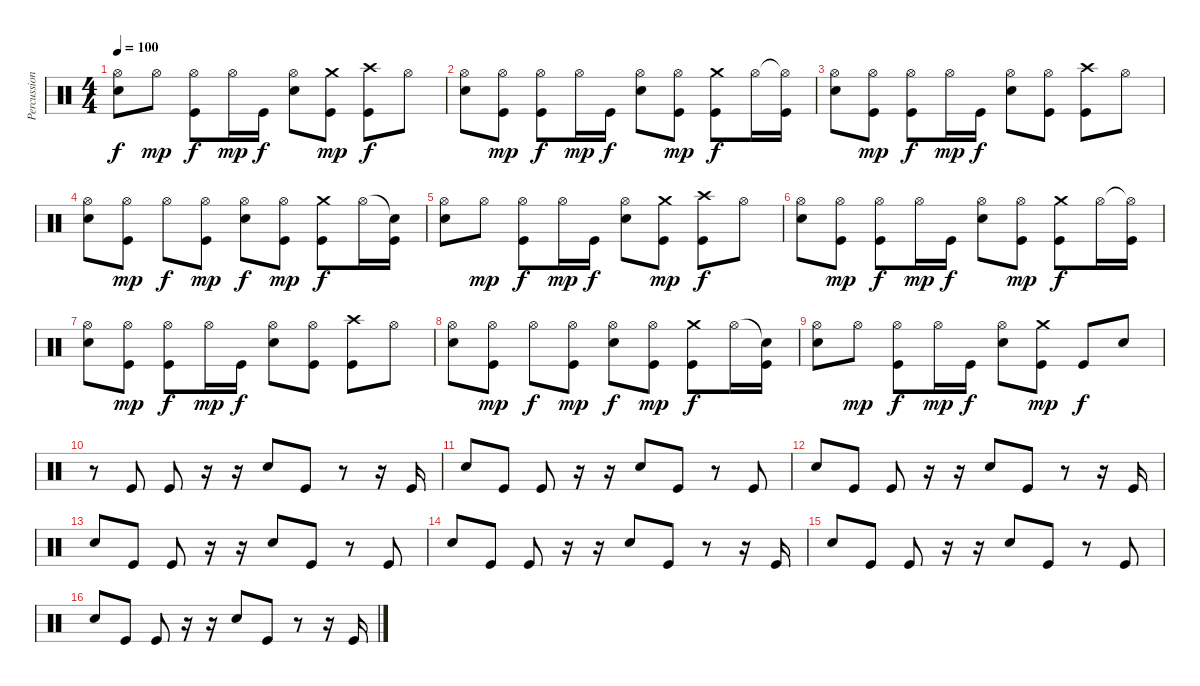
\track ("Percussion" "Percussion") {instrument percussion}
\staff {score}
\articulation defaults
\ts (4 4)
\tempo 100
\clef neutral
\ks c
("Hi-Hat (open)" "Electric Snare (hit)").8{dy f} "Hi-Hat (open)".8{dy mp} ("Hi-Hat (open)" "Kick (hit)").8{dy f} "Hi-Hat (open)".16{dy mp} "Kick (hit)".16{dy f} ("Hi-Hat (open)" "Electric Snare (hit)").8 ("Crash medium (hit)" "Kick (hit)").8{dy mp} ("Crash high (hit)" "Kick (hit)").8{dy f} "Hi-Hat (open)".8 |
("Hi-Hat (open)" "Electric Snare (hit)").8 ("Hi-Hat (open)" "Kick (hit)").8{dy mp} ("Hi-Hat (open)" "Kick (hit)").8{dy f} "Hi-Hat (open)".16{dy mp} "Kick (hit)".16{dy f} ("Hi-Hat (open)" "Electric Snare (hit)").8 ("Hi-Hat (open)" "Kick (hit)").8{dy mp} ("Crash medium (hit)" "Kick (hit)").8{dy f} "Hi-Hat (open)".16 ("Hi-Hat (open)"{t} "Kick (hit)").16 |
("Hi-Hat (open)" "Electric Snare (hit)").8 ("Hi-Hat (open)" "Kick (hit)").8{dy mp} ("Hi-Hat (open)" "Kick (hit)").8{dy f} "Hi-Hat (open)".16{dy mp} "Kick (hit)".16{dy f} ("Hi-Hat (open)" "Electric Snare (hit)").8 ("Hi-Hat (open)" "Kick (hit)").8 ("Crash high (hit)" "Kick (hit)").8 "Hi-Hat (open)".8 |
("Hi-Hat (open)" "Electric Snare (hit)").8 ("Hi-Hat (open)" "Kick (hit)").8{dy mp} "Hi-Hat (open)".8{dy f} ("Hi-Hat (open)" "Kick (hit)").8{dy mp} ("Hi-Hat (open)" "Electric Snare (hit)").8{dy f} ("Hi-Hat (open)" "Kick (hit)").8{dy mp} ("Crash medium (hit)" "Kick (hit)").8{dy f} "Hi-Hat (open)".16 ("Snare (hit)"{t} "Kick (hit)").16 |
("Hi-Hat (open)" "Electric Snare (hit)").8 "Hi-Hat (open)".8{dy mp} ("Hi-Hat (open)" "Kick (hit)").8{dy f} "Hi-Hat (open)".16{dy mp} "Kick (hit)".16{dy f} ("Hi-Hat (open)" "Electric Snare (hit)").8 ("Crash medium (hit)" "Kick (hit)").8{dy mp} ("Crash high (hit)" "Kick (hit)").8{dy f} "Hi-Hat (open)".8 |
("Hi-Hat (open)" "Electric Snare (hit)").8 ("Hi-Hat (open)" "Kick (hit)").8{dy mp} ("Hi-Hat (open)" "Kick (hit)").8{dy f} "Hi-Hat (open)".16{dy mp} "Kick (hit)".16{dy f} ("Hi-Hat (open)" "Electric Snare (hit)").8 ("Hi-Hat (open)" "Kick (hit)").8{dy mp} ("Crash medium (hit)" "Kick (hit)").8{dy f} "Hi-Hat (open)".16 ("Hi-Hat (open)"{t} "Kick (hit)").16 |
("Hi-Hat (open)" "Electric Snare (hit)").8 ("Hi-Hat (open)" "Kick (hit)").8{dy mp} ("Hi-Hat (open)" "Kick (hit)").8{dy f} "Hi-Hat (open)".16{dy mp} "Kick (hit)".16{dy f} ("Hi-Hat (open)" "Electric Snare (hit)").8 ("Hi-Hat (open)" "Kick (hit)").8 ("Crash high (hit)" "Kick (hit)").8 "Hi-Hat (open)".8 |
("Hi-Hat (open)" "Electric Snare (hit)").8 ("Hi-Hat (open)" "Kick (hit)").8{dy mp} "Hi-Hat (open)".8{dy f} ("Hi-Hat (open)" "Kick (hit)").8{dy mp} ("Hi-Hat (open)" "Electric Snare (hit)").8{dy f} ("Hi-Hat (open)" "Kick (hit)").8{dy mp} ("Crash medium (hit)" "Kick (hit)").8{dy f} "Hi-Hat (open)".16 ("Snare (hit)"{t} "Kick (hit)").16 |
("Hi-Hat (open)" "Electric Snare (hit)").8 "Hi-Hat (open)".8{dy mp} ("Hi-Hat (open)" "Kick (hit)").8{dy f} "Hi-Hat (open)".16{dy mp} "Kick (hit)".16{dy f} ("Hi-Hat (open)" "Electric Snare (hit)").8 ("Crash medium (hit)" "Kick (hit)").8{dy mp} "Kick (hit)".8{dy f} "Electric Snare (hit)".8 |
r.8 "Kick (hit)".8 "Kick (hit)".8 r.16 r.16 "Electric Snare (hit)".8 "Kick (hit)".8 r.8 r.16 "Kick (hit)".16 |
"Electric Snare (hit)".8 "Kick (hit)".8 "Kick (hit)".8 r.16 r.16 "Electric Snare (hit)".8 "Kick (hit)".8 r.8 "Kick (hit)".8 |
"Electric Snare (hit)".8 "Kick (hit)".8 "Kick (hit)".8 r.16 r.16 "Electric Snare (hit)".8 "Kick (hit)".8 r.8 r.16 "Kick (hit)".16 |
"Electric Snare (hit)".8 "Kick (hit)".8 "Kick (hit)".8 r.16 r.16 "Electric Snare (hit)".8 "Kick (hit)".8 r.8 "Kick (hit)".8 |
"Electric Snare (hit)".8 "Kick (hit)".8 "Kick (hit)".8 r.16 r.16 "Electric Snare (hit)".8 "Kick (hit)".8 r.8 r.16 "Kick (hit)".16 |
"Electric Snare (hit)".8 "Kick (hit)".8 "Kick (hit)".8 r.16 r.16 "Electric Snare (hit)".8 "Kick (hit)".8 r.8 "Kick (hit)".8 |
"Electric Snare (hit)".8 "Kick (hit)".8 "Kick (hit)".8 r.16 r.16 "Electric Snare (hit)".8 "Kick (hit)".8 r.8 r.16 "Kick (hit)".16
